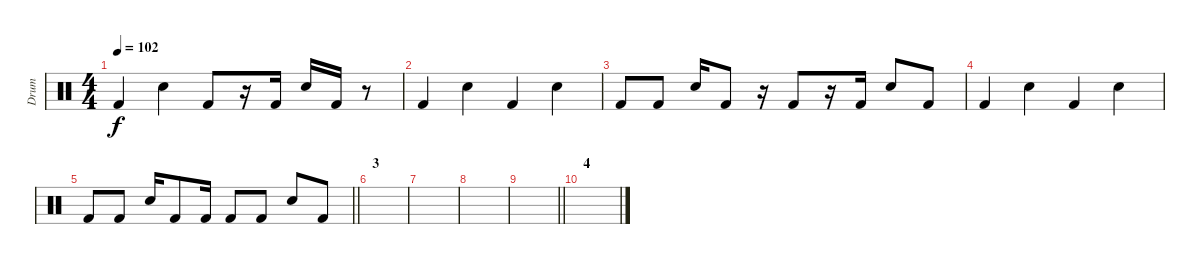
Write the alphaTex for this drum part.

\track ("Drum" "Drum") {instrument percussion}
\staff {score}
\articulation defaults
\ts (4 4)
\tempo 102
\clef neutral
\ks c "Kick (hit) 2".4{dy f} "Electric Snare (hit)".4 "Kick (hit) 2".8
r.16 "Kick (hit) 2".16 "Electric Snare (hit)".16 "Kick (hit) 2".16 r.8 |
"Kick (hit) 2".4 "Electric Snare (hit)".4 "Kick (hit) 2".4 "Electric Snare (hit)".4 |
"Kick (hit) 2".8 "Kick (hit) 2".8 "Electric Snare (hit)".16 "Kick (hit) 2".8 r.16 "Kick (hit) 2".8 r.16 "Kick (hit) 2".16 "Electric Snare (hit)".8 "Kick (hit) 2".8 |
"Kick (hit) 2".4 "Electric Snare (hit)".4 "Kick (hit) 2".4 "Electric Snare (hit)".4 |
\barLineRight lightlight "Kick (hit) 2".8 "Kick (hit) 2".8 "Electric Snare (hit)".16 "Kick (hit) 2".8 "Kick (hit) 2".16 "Kick (hit) 2".8 "Kick (hit) 2".8 "Electric Snare (hit)".8 "Kick (hit) 2".8
|
\section ("" "3")
|
|
|
\barLineRight lightlight
|
\section ("" "4")
